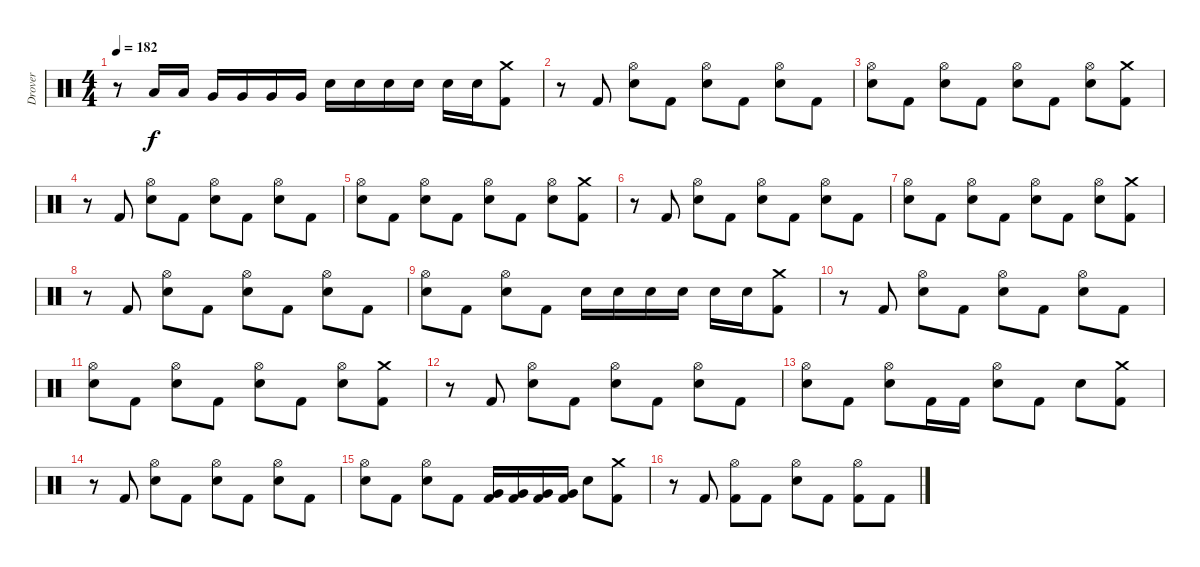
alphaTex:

\track ("Drover" "Drover") {instrument percussion}
\staff {score}
\articulation defaults
\ts (4 4)
\tempo 182
\clef neutral
\ks c
r.8{dy f} "Low Tom (hit)".16 "Low Tom (hit)".16 "Very Low Tom (hit)".16 "Very Low Tom (hit)".16 "Very Low Tom (hit)".16 "Very Low Tom (hit)".16 "Snare (hit) 2".16 "Snare (hit) 2".16 "Snare (hit) 2".16 "Snare (hit) 2".16 "Snare (hit) 2".16 "Snare (hit) 2".16 ("Crash medium (hit)" "Kick (hit) 2").8 |
r.8 "Kick (hit) 2".8 ("Hi-Hat (open)" "Snare (hit) 2").8 "Kick (hit) 2".8 ("Hi-Hat (open)" "Snare (hit) 2").8 "Kick (hit) 2".8 ("Hi-Hat (open)" "Snare (hit) 2").8 "Kick (hit) 2".8 |
("Hi-Hat (open)" "Snare (hit) 2").8 "Kick (hit) 2".8 ("Hi-Hat (open)" "Snare (hit) 2").8 "Kick (hit) 2".8 ("Hi-Hat (open)" "Snare (hit) 2").8 "Kick (hit) 2".8 ("Hi-Hat (open)" "Snare (hit) 2").8 ("Crash medium (hit)" "Kick (hit) 2").8 |
r.8 "Kick (hit) 2".8 ("Hi-Hat (open)" "Snare (hit) 2").8 "Kick (hit) 2".8 ("Hi-Hat (open)" "Snare (hit) 2").8 "Kick (hit) 2".8 ("Hi-Hat (open)" "Snare (hit) 2").8 "Kick (hit) 2".8 |
("Hi-Hat (open)" "Snare (hit) 2").8 "Kick (hit) 2".8 ("Hi-Hat (open)" "Snare (hit) 2").8 "Kick (hit) 2".8 ("Hi-Hat (open)" "Snare (hit) 2").8 "Kick (hit) 2".8 ("Hi-Hat (open)" "Snare (hit) 2").8 ("Crash medium (hit)" "Kick (hit) 2").8 |
r.8 "Kick (hit) 2".8 ("Hi-Hat (open)" "Snare (hit) 2").8 "Kick (hit) 2".8 ("Hi-Hat (open)" "Snare (hit) 2").8 "Kick (hit) 2".8 ("Hi-Hat (open)" "Snare (hit) 2").8 "Kick (hit) 2".8 |
("Hi-Hat (open)" "Snare (hit) 2").8 "Kick (hit) 2".8 ("Hi-Hat (open)" "Snare (hit) 2").8 "Kick (hit) 2".8 ("Hi-Hat (open)" "Snare (hit) 2").8 "Kick (hit) 2".8 ("Hi-Hat (open)" "Snare (hit) 2").8 ("Crash medium (hit)" "Kick (hit) 2").8 |
r.8 "Kick (hit) 2".8 ("Hi-Hat (open)" "Snare (hit) 2").8 "Kick (hit) 2".8 ("Hi-Hat (open)" "Snare (hit) 2").8 "Kick (hit) 2".8 ("Hi-Hat (open)" "Snare (hit) 2").8 "Kick (hit) 2".8 |
("Hi-Hat (open)" "Snare (hit) 2").8 "Kick (hit) 2".8 ("Hi-Hat (open)" "Snare (hit) 2").8 "Kick (hit) 2".8 "Snare (hit) 2".16 "Snare (hit) 2".16 "Snare (hit) 2".16 "Snare (hit) 2".16 "Snare (hit) 2".16 "Snare (hit) 2".16 ("Crash medium (hit)" "Kick (hit) 2").8 |
r.8 "Kick (hit) 2".8 ("Hi-Hat (open)" "Snare (hit) 2").8 "Kick (hit) 2".8 ("Hi-Hat (open)" "Snare (hit) 2").8 "Kick (hit) 2".8 ("Hi-Hat (open)" "Snare (hit) 2").8 "Kick (hit) 2".8 |
("Hi-Hat (open)" "Snare (hit) 2").8 "Kick (hit) 2".8 ("Hi-Hat (open)" "Snare (hit) 2").8 "Kick (hit) 2".8 ("Hi-Hat (open)" "Snare (hit) 2").8 "Kick (hit) 2".8 ("Hi-Hat (open)" "Snare (hit) 2").8 ("Crash medium (hit)" "Kick (hit) 2").8 |
r.8 "Kick (hit) 2".8 ("Hi-Hat (open)" "Snare (hit) 2").8 "Kick (hit) 2".8 ("Hi-Hat (open)" "Snare (hit) 2").8 "Kick (hit) 2".8 ("Hi-Hat (open)" "Snare (hit) 2").8 "Kick (hit) 2".8 |
("Hi-Hat (open)" "Snare (hit) 2").8 "Kick (hit) 2".8 ("Hi-Hat (open)" "Snare (hit) 2").8 "Kick (hit) 2".16 "Kick (hit) 2".16 ("Hi-Hat (open)" "Snare (hit) 2").8 "Kick (hit) 2".8 "Snare (hit) 2".8 ("Crash medium (hit)" "Kick (hit) 2").8 |
r.8 "Kick (hit) 2".8 ("Hi-Hat (open)" "Snare (hit) 2").8 "Kick (hit) 2".8 ("Hi-Hat (open)" "Snare (hit) 2").8 "Kick (hit) 2".8 ("Hi-Hat (open)" "Snare (hit) 2").8 "Kick (hit) 2".8 |
("Hi-Hat (open)" "Snare (hit) 2").8 "Kick (hit) 2".8 ("Hi-Hat (open)" "Snare (hit) 2").8 "Kick (hit) 2".8 ("Very Low Tom (hit)" "Kick (hit) 2").16 ("Very Low Tom (hit)" "Kick (hit) 2").16 ("Very Low Tom (hit)" "Kick (hit) 2").16 ("Very Low Tom (hit)" "Kick (hit) 2").16 "Snare (hit) 2".8 ("Crash medium (hit)" "Kick (hit) 2").8 |
r.8 "Kick (hit) 2".8 ("Hi-Hat (open)" "Kick (hit) 2").8 "Kick (hit) 2".8 ("Hi-Hat (open)" "Snare (hit) 2").8 "Kick (hit) 2".8 ("Hi-Hat (open)" "Kick (hit) 2").8 "Kick (hit) 2".8
